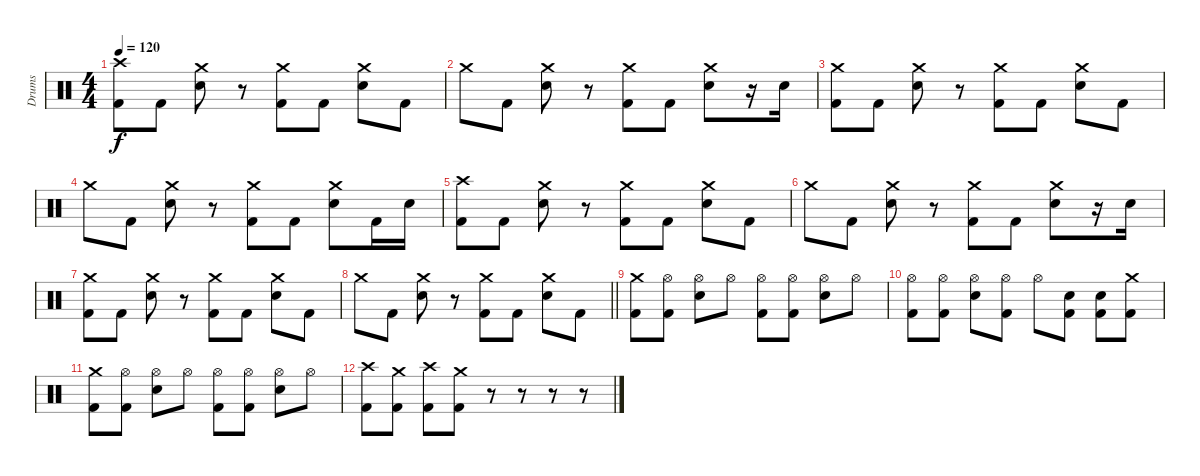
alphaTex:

\track ("Drums" "Drums") {instrument percussion}
\staff {score}
\articulation defaults
\ts (4 4)
\tempo 120
\clef neutral
\ks c
("Crash high (hit)" "Kick (hit) 2").8{dy f} "Kick (hit) 2".8 ("Crash medium (hit)" "Snare (hit) 2").8 r.8 ("Crash medium (hit)" "Kick (hit) 2").8 "Kick (hit) 2".8 ("Crash medium (hit)" "Snare (hit) 2").8 "Kick (hit) 2".8 |
"Crash medium (hit)".8 "Kick (hit) 2".8 ("Crash medium (hit)" "Snare (hit) 2").8 r.8 ("Crash medium (hit)" "Kick (hit) 2").8 "Kick (hit) 2".8 ("Crash medium (hit)" "Snare (hit) 2").8 r.16 "Snare (hit) 2".16 |
("Crash medium (hit)" "Kick (hit) 2").8 "Kick (hit) 2".8 ("Crash medium (hit)" "Snare (hit) 2").8 r.8 ("Crash medium (hit)" "Kick (hit) 2").8 "Kick (hit) 2".8 ("Crash medium (hit)" "Snare (hit) 2").8 "Kick (hit) 2".8 |
"Crash medium (hit)".8 "Kick (hit) 2".8 ("Crash medium (hit)" "Snare (hit) 2").8 r.8 ("Crash medium (hit)" "Kick (hit) 2").8 "Kick (hit) 2".8 ("Crash medium (hit)" "Snare (hit) 2").8 "Kick (hit) 2".16 "Snare (hit) 2".16 |
("Crash high (hit)" "Kick (hit) 2").8 "Kick (hit) 2".8 ("Crash medium (hit)" "Snare (hit) 2").8 r.8 ("Crash medium (hit)" "Kick (hit) 2").8 "Kick (hit) 2".8 ("Crash medium (hit)" "Snare (hit) 2").8 "Kick (hit) 2".8 |
"Crash medium (hit)".8 "Kick (hit) 2".8 ("Crash medium (hit)" "Snare (hit) 2").8 r.8 ("Crash medium (hit)" "Kick (hit) 2").8 "Kick (hit) 2".8 ("Crash medium (hit)" "Snare (hit) 2").8 r.16 "Snare (hit) 2".16 |
("Crash medium (hit)" "Kick (hit) 2").8 "Kick (hit) 2".8 ("Crash medium (hit)" "Snare (hit) 2").8 r.8 ("Crash medium (hit)" "Kick (hit) 2").8 "Kick (hit) 2".8 ("Crash medium (hit)" "Snare (hit) 2").8 "Kick (hit) 2".8 |
\barLineRight lightlight "Crash medium (hit)".8 "Kick (hit) 2".8
("Crash medium (hit)" "Snare (hit) 2").8 r.8 ("Crash medium (hit)" "Kick (hit) 2").8 "Kick (hit) 2".8 ("Crash medium (hit)" "Snare (hit) 2").8 "Kick (hit) 2".8 |
("Crash medium (hit)" "Kick (hit) 2").8 ("Hi-Hat (open)" "Kick (hit) 2").8 ("Hi-Hat (open)" "Snare (hit) 2").8 "Hi-Hat (open)".8 ("Hi-Hat (open)" "Kick (hit) 2").8 ("Hi-Hat (open)" "Kick (hit) 2").8 ("Hi-Hat (open)" "Snare (hit) 2").8 "Hi-Hat (open)".8 |
("Hi-Hat (open)" "Kick (hit) 2").8 ("Hi-Hat (open)" "Kick (hit) 2").8 ("Hi-Hat (open)" "Snare (hit) 2").8 ("Hi-Hat (open)" "Kick (hit) 2").8 "Hi-Hat (open)".8 ("Snare (hit) 2" "Kick (hit) 2").8 ("Snare (hit) 2" "Kick (hit) 2").8 ("Crash medium (hit)" "Kick (hit) 2").8 |
("Crash medium (hit)" "Kick (hit) 2").8 ("Hi-Hat (open)" "Kick (hit) 2").8 ("Hi-Hat (open)" "Snare (hit) 2").8 "Hi-Hat (open)".8 ("Hi-Hat (open)" "Kick (hit) 2").8 ("Hi-Hat (open)" "Kick (hit) 2").8 ("Hi-Hat (open)" "Snare (hit) 2").8 "Hi-Hat (open)".8 |
("Crash high (hit)" "Kick (hit) 2").8 ("Crash medium (hit)" "Kick (hit) 2").8 ("Crash high (hit)" "Kick (hit) 2").8 ("Crash medium (hit)" "Kick (hit) 2").8 r.8 r.8 r.8 r.8
